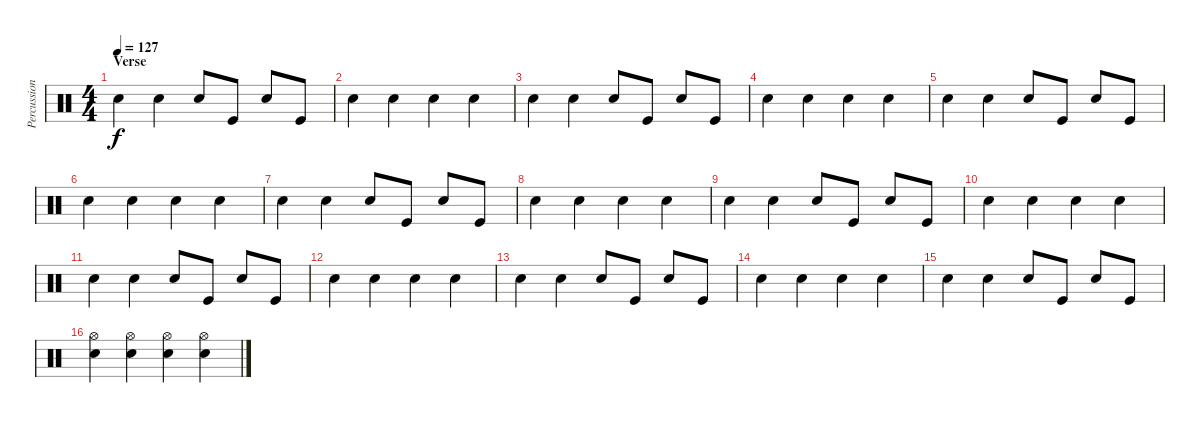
\track ("Percussion" "Percussion") {instrument percussion}
\staff {score}
\articulation defaults
\ts (4 4)
\section ("" "Verse")
\tempo 127
\clef neutral
\ks c "Electric Snare (hit)".4{dy f} "Electric Snare (hit)".4 "Electric Snare (hit)".8 "Kick (hit)".8 "Electric Snare (hit)".8 "Kick (hit)".8
|
"Electric Snare (hit)".4 "Electric Snare (hit)".4 "Electric Snare (hit)".4 "Electric Snare (hit)".4 |
"Electric Snare (hit)".4 "Electric Snare (hit)".4 "Electric Snare (hit)".8 "Kick (hit)".8 "Electric Snare (hit)".8 "Kick (hit)".8 |
"Electric Snare (hit)".4 "Electric Snare (hit)".4 "Electric Snare (hit)".4 "Electric Snare (hit)".4 |
"Electric Snare (hit)".4 "Electric Snare (hit)".4 "Electric Snare (hit)".8 "Kick (hit)".8 "Electric Snare (hit)".8 "Kick (hit)".8 |
"Electric Snare (hit)".4 "Electric Snare (hit)".4 "Electric Snare (hit)".4 "Electric Snare (hit)".4 |
"Electric Snare (hit)".4 "Electric Snare (hit)".4 "Electric Snare (hit)".8 "Kick (hit)".8 "Electric Snare (hit)".8 "Kick (hit)".8 |
"Electric Snare (hit)".4 "Electric Snare (hit)".4 "Electric Snare (hit)".4 "Electric Snare (hit)".4 |
"Electric Snare (hit)".4 "Electric Snare (hit)".4 "Electric Snare (hit)".8 "Kick (hit)".8 "Electric Snare (hit)".8 "Kick (hit)".8 |
"Electric Snare (hit)".4 "Electric Snare (hit)".4 "Electric Snare (hit)".4 "Electric Snare (hit)".4 |
"Electric Snare (hit)".4 "Electric Snare (hit)".4 "Electric Snare (hit)".8 "Kick (hit)".8 "Electric Snare (hit)".8 "Kick (hit)".8 |
"Electric Snare (hit)".4 "Electric Snare (hit)".4 "Electric Snare (hit)".4 "Electric Snare (hit)".4 |
"Electric Snare (hit)".4 "Electric Snare (hit)".4 "Electric Snare (hit)".8 "Kick (hit)".8 "Electric Snare (hit)".8 "Kick (hit)".8 |
"Electric Snare (hit)".4 "Electric Snare (hit)".4 "Electric Snare (hit)".4 "Electric Snare (hit)".4 |
"Electric Snare (hit)".4 "Electric Snare (hit)".4 "Electric Snare (hit)".8 "Kick (hit)".8 "Electric Snare (hit)".8 "Kick (hit)".8 |
("Hi-Hat (open)" "Electric Snare (hit)").4 ("Hi-Hat (open)" "Electric Snare (hit)").4 ("Hi-Hat (open)" "Electric Snare (hit)").4 ("Hi-Hat (open)" "Electric Snare (hit)").4
